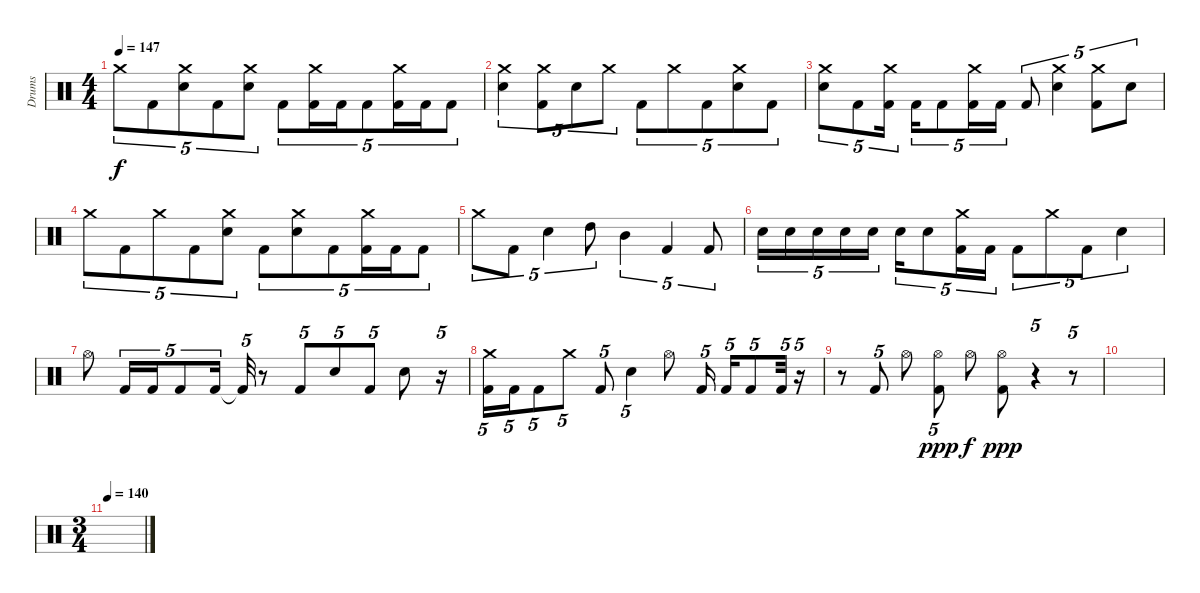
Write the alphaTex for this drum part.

\track ("Drums" "Drums") {instrument percussion}
\staff {score}
\articulation defaults
\ts (4 4)
\tempo 147
\clef neutral
\ks c "Crash medium (hit)".8{tu (5 4) dy f} "Kick (hit) 2".8{tu (5 4)}
("Crash medium (hit)" "Electric Snare (hit)").8{tu (5 4)} "Kick (hit) 2".8{tu (5 4)} ("Crash medium (hit)" "Electric Snare (hit)").8{tu (5 4)} "Kick (hit) 2".8{tu (5 4)} ("Crash medium (hit)" "Kick (hit) 2").16{tu (5 4)} "Kick (hit) 2".16{tu (5 4)} "Kick (hit) 2".8{tu (5 4)} ("Crash medium (hit)" "Kick (hit) 2").16{tu (5 4)} "Kick (hit) 2".16{tu (5 4)} "Kick (hit) 2".8{tu (5 4)} |
("Crash medium (hit)" "Electric Snare (hit)").4{tu (5 4)} ("Crash medium (hit)" "Kick (hit) 2").8{tu (5 4)} "Electric Snare (hit)".8{tu (5 4)} "Crash medium (hit)".8{tu (5 4)} "Kick (hit) 2".8{tu (5 4)} "Crash medium (hit)".8{tu (5 4)} "Kick (hit) 2".8{tu (5 4)} ("Crash medium (hit)" "Electric Snare (hit)").8{tu (5 4)} "Kick (hit) 2".8{tu (5 4)} |
("Crash medium (hit)" "Electric Snare (hit)").8{tu (5 4)} "Kick (hit) 2".8{tu (5 4)} ("Crash medium (hit)" "Kick (hit) 2").16{tu (5 4)} "Kick (hit) 2".16{tu (5 4)} "Kick (hit) 2".8{tu (5 4)} ("Crash medium (hit)" "Kick (hit) 2").16{tu (5 4)} "Kick (hit) 2".16{tu (5 4)} "Kick (hit) 2".8{tu (5 4)} ("Crash medium (hit)" "Electric Snare (hit)").4{tu (5 4)} ("Crash medium (hit)" "Kick (hit) 2").8{tu (5 4)} "Electric Snare (hit)".8{tu (5 4)} |
"Crash medium (hit)".8{tu (5 4)} "Kick (hit) 2".8{tu (5 4)} "Crash medium (hit)".8{tu (5 4)} "Kick (hit) 2".8{tu (5 4)} ("Crash medium (hit)" "Electric Snare (hit)").8{tu (5 4)} "Kick (hit) 2".8{tu (5 4)} ("Crash medium (hit)" "Electric Snare (hit)").8{tu (5 4)} "Kick (hit) 2".8{tu (5 4)} ("Crash medium (hit)" "Kick (hit) 2").16{tu (5 4)} "Kick (hit) 2".16{tu (5 4)} "Kick (hit) 2".8{tu (5 4)} |
"Crash medium (hit)".8{tu (5 4)} "Kick (hit) 2".8{tu (5 4)} "Electric Snare (hit)".4{tu (5 4)} "High Tom (hit)".8{tu (5 4)} "Mid Tom (hit)".4{tu (5 4)} "Kick (hit) 2".4{tu (5 4)} "Kick (hit) 2".8{tu (5 4)} |
"Electric Snare (hit)".16{tu (5 4)} "Electric Snare (hit)".16{tu (5 4)} "Electric Snare (hit)".16{tu (5 4)} "Electric Snare (hit)".16{tu (5 4)} "Electric Snare (hit)".16{tu (5 4)} "Electric Snare (hit)".16{tu (5 4)} "Electric Snare (hit)".8{tu (5 4)} ("Crash medium (hit)" "Kick (hit) 2").16{tu (5 4)} "Kick (hit) 2".16{tu (5 4)} "Kick (hit) 2".8{tu (5 4)} "Crash medium (hit)".8{tu (5 4)} "Kick (hit) 2".8{tu (5 4)} "Electric Snare (hit)".4{tu (5 4)} |
"Hi-Hat (open)".8 "Kick (hit) 2".16{tu (5 4)} "Kick (hit) 2".16{tu (5 4)} "Kick (hit) 2".8{tu (5 4)} "Kick (hit) 2".16{tu (5 4)} "Kick (hit) 2"{t}.32{tu (5 4)} r.8 "Kick (hit) 2".8{tu (5 4)} "Electric Snare (hit)".8{tu (5 4)} "Kick (hit) 2".8{tu (5 4)} "Electric Snare (hit)".8 r.16{tu (5 4)} |
("Crash medium (hit)" "Kick (hit) 2").16{tu (5 4)} "Kick (hit) 2".16{tu (5 4)} "Kick (hit) 2".8{tu (5 4)} "Crash medium (hit)".8{tu (5 4)} "Kick (hit) 2".8{tu (5 4)} "Electric Snare (hit)".4{tu (5 4)} "Hi-Hat (open)".8 "Kick (hit) 2".16{tu (5 4)} "Kick (hit) 2".16{tu (5 4)} "Kick (hit) 2".8{tu (5 4)} "Kick (hit) 2".32{tu (5 4)} r.16{tu (5 4)} |
r.8 "Kick (hit) 2".8{tu (5 4)} "Hi-Hat (open)".8 ("Hi-Hat (open)" "Kick (hit) 2").8{tu (5 4) dy ppp} "Hi-Hat (open)".8{dy f} ("Hi-Hat (open)" "Kick (hit) 2").8{dy ppp} r.4{tu (5 4)} r.8{tu (5 4)} |
|
\ts (3 4)
\tempo 140
